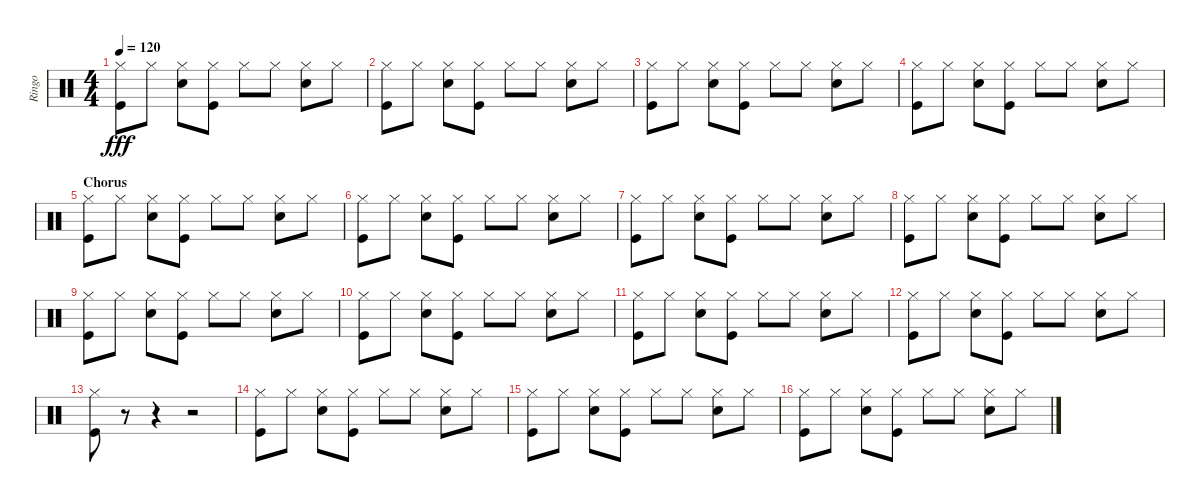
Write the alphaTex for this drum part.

\track ("Ringo" "Ringo") {instrument percussion}
\staff {score}
\articulation defaults
\ts (4 4)
\tempo 120
\clef neutral
\ks c
("Hi-Hat (closed)" "Kick (hit)").8{dy fff} "Hi-Hat (closed)".8 ("Hi-Hat (closed)" "Electric Snare (hit)").8 ("Hi-Hat (closed)" "Kick (hit)").8 "Hi-Hat (closed)".8 "Hi-Hat (closed)".8 ("Hi-Hat (closed)" "Electric Snare (hit)").8 "Hi-Hat (closed)".8 |
("Hi-Hat (closed)" "Kick (hit)").8 "Hi-Hat (closed)".8 ("Hi-Hat (closed)" "Electric Snare (hit)").8 ("Hi-Hat (closed)" "Kick (hit)").8 "Hi-Hat (closed)".8 "Hi-Hat (closed)".8 ("Hi-Hat (closed)" "Electric Snare (hit)").8 "Hi-Hat (closed)".8 |
("Hi-Hat (closed)" "Kick (hit)").8 "Hi-Hat (closed)".8 ("Hi-Hat (closed)" "Electric Snare (hit)").8 ("Hi-Hat (closed)" "Kick (hit)").8 "Hi-Hat (closed)".8 "Hi-Hat (closed)".8 ("Hi-Hat (closed)" "Electric Snare (hit)").8 "Hi-Hat (closed)".8 |
("Hi-Hat (closed)" "Kick (hit)").8 "Hi-Hat (closed)".8 ("Hi-Hat (closed)" "Electric Snare (hit)").8 ("Hi-Hat (closed)" "Kick (hit)").8 "Hi-Hat (closed)".8 "Hi-Hat (closed)".8 ("Hi-Hat (closed)" "Electric Snare (hit)").8 "Hi-Hat (closed)".8 |
\section ("" "Chorus")
("Hi-Hat (closed)" "Kick (hit)").8 "Hi-Hat (closed)".8 ("Hi-Hat (closed)" "Electric Snare (hit)").8 ("Hi-Hat (closed)" "Kick (hit)").8 "Hi-Hat (closed)".8 "Hi-Hat (closed)".8 ("Hi-Hat (closed)" "Electric Snare (hit)").8 "Hi-Hat (closed)".8 |
("Hi-Hat (closed)" "Kick (hit)").8 "Hi-Hat (closed)".8 ("Hi-Hat (closed)" "Electric Snare (hit)").8 ("Hi-Hat (closed)" "Kick (hit)").8 "Hi-Hat (closed)".8 "Hi-Hat (closed)".8 ("Hi-Hat (closed)" "Electric Snare (hit)").8 "Hi-Hat (closed)".8 |
("Hi-Hat (closed)" "Kick (hit)").8 "Hi-Hat (closed)".8 ("Hi-Hat (closed)" "Electric Snare (hit)").8 ("Hi-Hat (closed)" "Kick (hit)").8 "Hi-Hat (closed)".8 "Hi-Hat (closed)".8 ("Hi-Hat (closed)" "Electric Snare (hit)").8 "Hi-Hat (closed)".8 |
("Hi-Hat (closed)" "Kick (hit)").8 "Hi-Hat (closed)".8 ("Hi-Hat (closed)" "Electric Snare (hit)").8 ("Hi-Hat (closed)" "Kick (hit)").8 "Hi-Hat (closed)".8 "Hi-Hat (closed)".8 ("Hi-Hat (closed)" "Electric Snare (hit)").8 "Hi-Hat (closed)".8 |
("Hi-Hat (closed)" "Kick (hit)").8 "Hi-Hat (closed)".8 ("Hi-Hat (closed)" "Electric Snare (hit)").8 ("Hi-Hat (closed)" "Kick (hit)").8 "Hi-Hat (closed)".8 "Hi-Hat (closed)".8 ("Hi-Hat (closed)" "Electric Snare (hit)").8 "Hi-Hat (closed)".8 |
("Hi-Hat (closed)" "Kick (hit)").8 "Hi-Hat (closed)".8 ("Hi-Hat (closed)" "Electric Snare (hit)").8 ("Hi-Hat (closed)" "Kick (hit)").8 "Hi-Hat (closed)".8 "Hi-Hat (closed)".8 ("Hi-Hat (closed)" "Electric Snare (hit)").8 "Hi-Hat (closed)".8 |
("Hi-Hat (closed)" "Kick (hit)").8 "Hi-Hat (closed)".8 ("Hi-Hat (closed)" "Electric Snare (hit)").8 ("Hi-Hat (closed)" "Kick (hit)").8 "Hi-Hat (closed)".8 "Hi-Hat (closed)".8 ("Hi-Hat (closed)" "Electric Snare (hit)").8 "Hi-Hat (closed)".8 |
("Hi-Hat (closed)" "Kick (hit)").8 "Hi-Hat (closed)".8 ("Hi-Hat (closed)" "Electric Snare (hit)").8 ("Hi-Hat (closed)" "Kick (hit)").8 "Hi-Hat (closed)".8 "Hi-Hat (closed)".8 ("Hi-Hat (closed)" "Electric Snare (hit)").8 "Hi-Hat (closed)".8 |
("Hi-Hat (closed)" "Kick (hit)").8 r.8 r.4 r.2 |
("Hi-Hat (closed)" "Kick (hit)").8 "Hi-Hat (closed)".8 ("Hi-Hat (closed)" "Electric Snare (hit)").8 ("Hi-Hat (closed)" "Kick (hit)").8 "Hi-Hat (closed)".8 "Hi-Hat (closed)".8 ("Hi-Hat (closed)" "Electric Snare (hit)").8 "Hi-Hat (closed)".8 |
("Hi-Hat (closed)" "Kick (hit)").8 "Hi-Hat (closed)".8 ("Hi-Hat (closed)" "Electric Snare (hit)").8 ("Hi-Hat (closed)" "Kick (hit)").8 "Hi-Hat (closed)".8 "Hi-Hat (closed)".8 ("Hi-Hat (closed)" "Electric Snare (hit)").8 "Hi-Hat (closed)".8 |
("Hi-Hat (closed)" "Kick (hit)").8 "Hi-Hat (closed)".8 ("Hi-Hat (closed)" "Electric Snare (hit)").8 ("Hi-Hat (closed)" "Kick (hit)").8 "Hi-Hat (closed)".8 "Hi-Hat (closed)".8 ("Hi-Hat (closed)" "Electric Snare (hit)").8 "Hi-Hat (closed)".8
